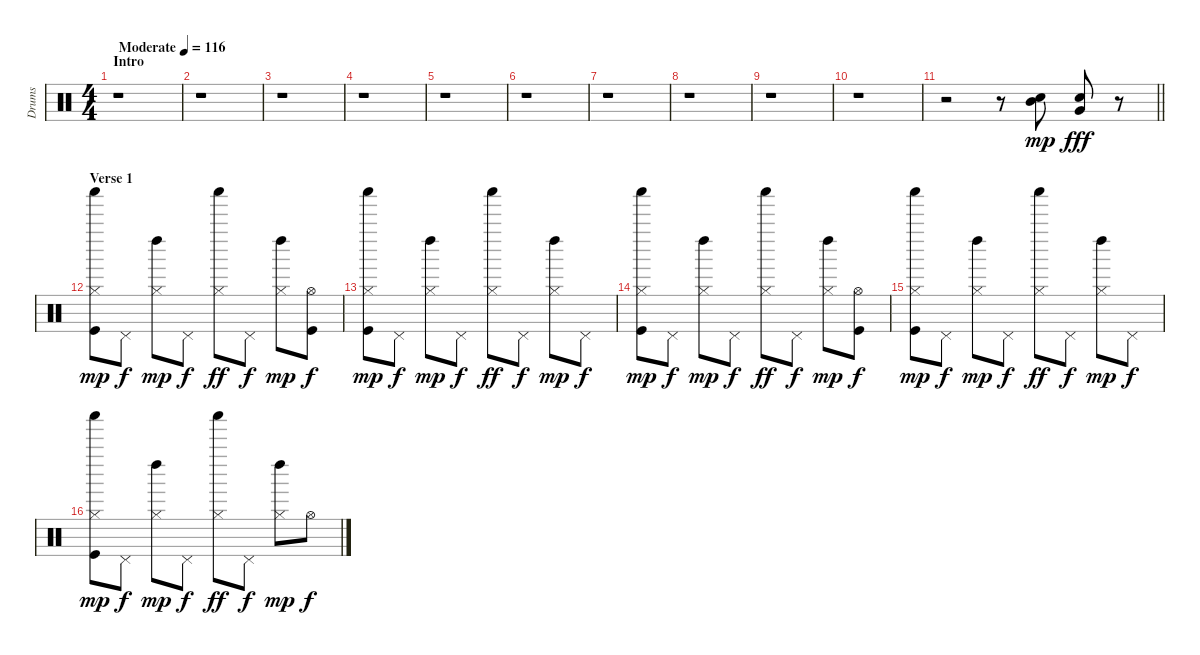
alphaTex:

\track ("Drums" "Drums") {instrument percussion}
\staff {score}
\articulation defaults
\ts (4 4)
\section ("" "Intro")
\tempo (116 "Moderate")
\clef neutral
\ks c
r.1{dy mp} |
r.1 |
r.1 |
r.1 |
r.1 |
r.1 |
r.1 |
r.1 |
r.1 |
r.1 |
\barLineRight lightlight
r.2 r.8 ("Mid Tom (hit)" "Snare (hit) 2").8 ("Very Low Tom (hit)" "Snare (hit) 2").8{dy fff} r.8 |
\section ("" "Verse 1")
("Kick (hit)" "Hi-Hat (closed)" "Shaker (hit)").8{dy mp} "Pedal Hi-Hat (hit)".8{dy f} ("Hi-Hat (closed)" "Left Maraca (hit)").8{dy mp} "Pedal Hi-Hat (hit)".8{dy f} ("Shaker (hit)" "Hi-Hat (closed)").8{dy ff} "Pedal Hi-Hat (hit)".8{dy f} ("Hi-Hat (closed)" "Left Maraca (hit)").8{dy mp} ("Kick (hit)" "Hi-Hat (open)").8{dy f} |
("Kick (hit)" "Hi-Hat (closed)" "Shaker (hit)").8{dy mp} "Pedal Hi-Hat (hit)".8{dy f} ("Hi-Hat (closed)" "Left Maraca (hit)").8{dy mp} "Pedal Hi-Hat (hit)".8{dy f} ("Shaker (hit)" "Hi-Hat (closed)").8{dy ff} "Pedal Hi-Hat (hit)".8{dy f} ("Hi-Hat (closed)" "Left Maraca (hit)").8{dy mp} "Pedal Hi-Hat (hit)".8{dy f} |
("Kick (hit)" "Hi-Hat (closed)" "Shaker (hit)").8{dy mp} "Pedal Hi-Hat (hit)".8{dy f} ("Hi-Hat (closed)" "Left Maraca (hit)").8{dy mp} "Pedal Hi-Hat (hit)".8{dy f} ("Shaker (hit)" "Hi-Hat (closed)").8{dy ff} "Pedal Hi-Hat (hit)".8{dy f} ("Hi-Hat (closed)" "Left Maraca (hit)").8{dy mp} ("Kick (hit)" "Hi-Hat (open)").8{dy f} |
("Kick (hit)" "Hi-Hat (closed)" "Shaker (hit)").8{dy mp} "Pedal Hi-Hat (hit)".8{dy f} ("Hi-Hat (closed)" "Left Maraca (hit)").8{dy mp} "Pedal Hi-Hat (hit)".8{dy f} ("Shaker (hit)" "Hi-Hat (closed)").8{dy ff} "Pedal Hi-Hat (hit)".8{dy f} ("Hi-Hat (closed)" "Left Maraca (hit)").8{dy mp} "Pedal Hi-Hat (hit)".8{dy f} |
("Kick (hit)" "Hi-Hat (closed)" "Shaker (hit)").8{dy mp} "Pedal Hi-Hat (hit)".8{dy f} ("Hi-Hat (closed)" "Left Maraca (hit)").8{dy mp} "Pedal Hi-Hat (hit)".8{dy f} ("Shaker (hit)" "Hi-Hat (closed)").8{dy ff} "Pedal Hi-Hat (hit)".8{dy f} ("Hi-Hat (closed)" "Left Maraca (hit)").8{dy mp} "Hi-Hat (open)".8{dy f}
